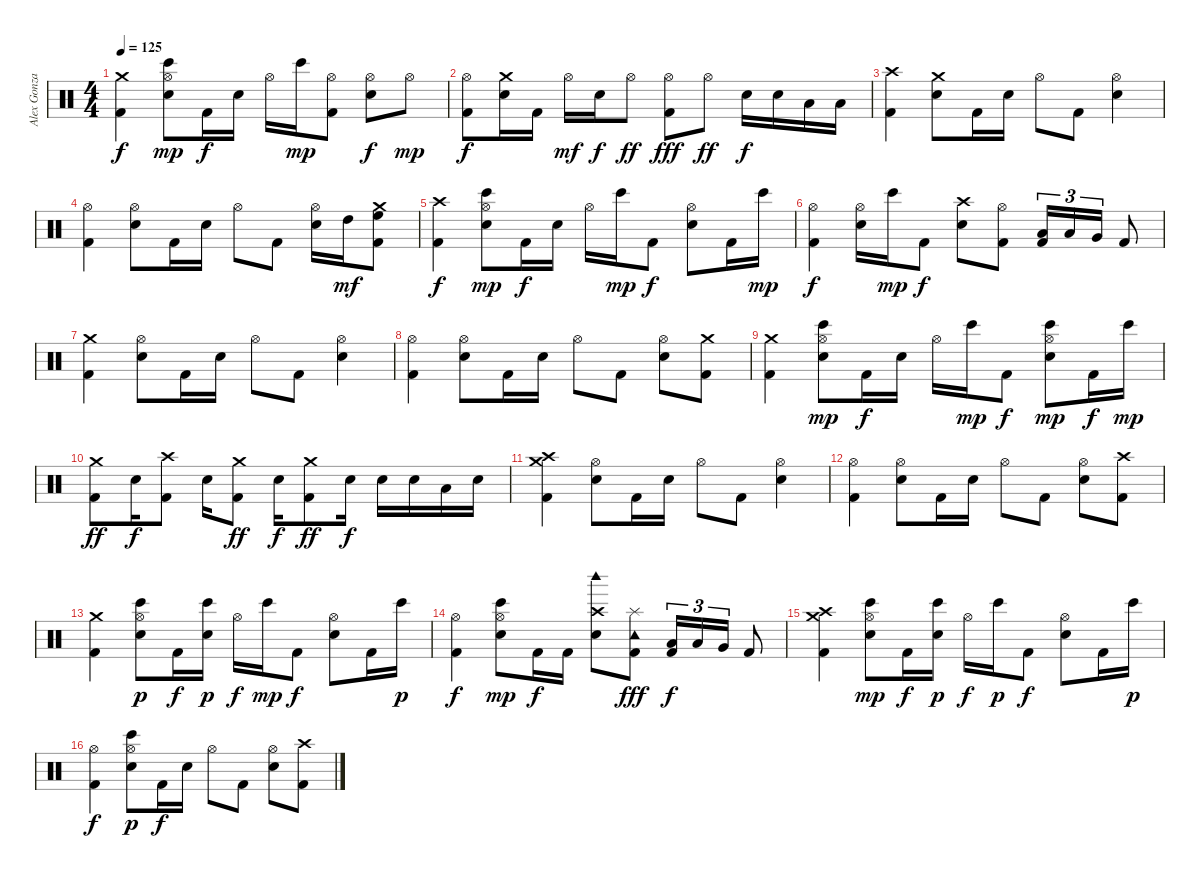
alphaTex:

\track ("Alex Gonzales" "Alex Gonza") {instrument percussion}
\staff {score}
\articulation defaults
\ts (4 4)
\tempo 125
\clef neutral
\ks c
("Crash medium (hit)" "Kick (hit) 2").4{dy f} ("Hi-Hat (open)" "Electric Snare (hit)" "Bongo High (hit)").8{dy mp} "Kick (hit) 2".16{dy f} "Electric Snare (hit)".16 "Hi-Hat (open)".16 "Bongo High (hit)".16{dy mp} ("Hi-Hat (open)" "Kick (hit) 2").8 ("Hi-Hat (open)" "Electric Snare (hit)").8{dy f} "Hi-Hat (open)".8{dy mp} |
("Hi-Hat (open)" "Kick (hit) 2").8{dy f} ("Crash medium (hit)" "Electric Snare (hit)").16 "Kick (hit) 2".16 "Hi-Hat (open)".16{dy mf} "Electric Snare (hit)".16{dy f} "Hi-Hat (open)".8{dy ff} ("Hi-Hat (open)" "Kick (hit) 2").8{dy fff} "Hi-Hat (open)".8{dy ff} "Electric Snare (hit)".16{dy f} "Electric Snare (hit)".16 "Low Tom (hit)".16 "Low Tom (hit)".16 |
("Crash high (hit)" "Kick (hit) 2").4 ("Crash medium (hit)" "Electric Snare (hit)").8 "Kick (hit) 2".16 "Electric Snare (hit)".16 "Hi-Hat (open)".8 "Kick (hit) 2".8 ("Hi-Hat (open)" "Electric Snare (hit)").4 |
("Hi-Hat (open)" "Kick (hit) 2").4 ("Hi-Hat (open)" "Electric Snare (hit)").8 "Kick (hit) 2".16 "Electric Snare (hit)".16 "Hi-Hat (open)".8 "Kick (hit) 2".8 ("Hi-Hat (open)" "Electric Snare (hit)").16 "High Tom (hit)".16{dy mf} ("High Floor Tom (hit)" "Crash medium (hit)" "Kick (hit) 2").8 |
("Crash high (hit)" "Kick (hit) 2").4{dy f} ("Hi-Hat (open)" "Electric Snare (hit)" "Bongo High (hit)").8{dy mp} "Kick (hit) 2".16{dy f} "Electric Snare (hit)".16 "Hi-Hat (open)".16 "Bongo High (hit)".16{dy mp} "Kick (hit) 2".8{dy f} ("Hi-Hat (open)" "Electric Snare (hit)").8 "Kick (hit) 2".16 "Bongo High (hit)".16{dy mp} |
("Hi-Hat (open)" "Kick (hit) 2").4{dy f} ("Hi-Hat (open)" "Electric Snare (hit)").16 "Bongo High (hit)".16{dy mp} "Kick (hit) 2".8{dy f} ("Crash high (hit)" "Electric Snare (hit)").8 ("Hi-Hat (open)" "Kick (hit) 2").8 ("Low Tom (hit)" "Kick (hit) 2").16{tu (3 2)} "Low Tom (hit)".16{tu (3 2)} "Very Low Tom (hit)".16{tu (3 2)} "Kick (hit) 2".8 |
("Crash medium (hit)" "Kick (hit) 2").4 ("Hi-Hat (open)" "Electric Snare (hit)").8 "Kick (hit) 2".16 "Electric Snare (hit)".16 "Hi-Hat (open)".8 "Kick (hit) 2".8 ("Hi-Hat (open)" "Electric Snare (hit)").4 |
("Hi-Hat (open)" "Kick (hit) 2").4 ("Hi-Hat (open)" "Electric Snare (hit)").8 "Kick (hit) 2".16 "Electric Snare (hit)".16 "Hi-Hat (open)".8 "Kick (hit) 2".8 ("Hi-Hat (open)" "Electric Snare (hit)").8 ("Crash medium (hit)" "Kick (hit) 2").8 |
("Crash medium (hit)" "Kick (hit) 2").4 ("Hi-Hat (open)" "Electric Snare (hit)" "Bongo High (hit)").8{dy mp} "Kick (hit) 2".16{dy f} "Electric Snare (hit)".16 "Hi-Hat (open)".16 "Bongo High (hit)".16{dy mp} "Kick (hit) 2".8{dy f} ("Hi-Hat (open)" "Electric Snare (hit)" "Bongo High (hit)").8{dy mp} "Kick (hit) 2".16{dy f} "Bongo High (hit)".16{dy mp} |
("Crash medium (hit)" "Kick (hit) 2").8{dy ff} "Electric Snare (hit)".16{dy f} ("Crash high (hit)" "Kick (hit) 2").8 "Electric Snare (hit)".16 ("Crash medium (hit)" "Kick (hit) 2").8{dy ff} "Electric Snare (hit)".16{dy f} ("Crash medium (hit)" "Kick (hit) 2").8{dy ff} "Electric Snare (hit)".16{dy f} "Electric Snare (hit)".16 "Electric Snare (hit)".16 "Low Tom (hit)".16 "Electric Snare (hit)".16 |
("Crash medium (hit)" "Crash high (hit)" "Kick (hit) 2").4 ("Hi-Hat (open)" "Electric Snare (hit)").8 "Kick (hit) 2".16 "Electric Snare (hit)".16 "Hi-Hat (open)".8 "Kick (hit) 2".8 ("Hi-Hat (open)" "Electric Snare (hit)").4 |
("Hi-Hat (open)" "Kick (hit) 2").4 ("Hi-Hat (open)" "Electric Snare (hit)").8 "Kick (hit) 2".16 "Electric Snare (hit)".16 "Hi-Hat (open)".8 "Kick (hit) 2".8 ("Hi-Hat (open)" "Electric Snare (hit)").8 ("Crash high (hit)" "Kick (hit) 2").8 |
("Crash medium (hit)" "Kick (hit) 2").4 ("Hi-Hat (open)" "Electric Snare (hit)" "Bongo High (hit)").8{dy p} "Kick (hit) 2".16{dy f} ("Electric Snare (hit)" "Bongo High (hit)").16{dy p} "Hi-Hat (open)".16{dy f} "Bongo High (hit)".16{dy mp} "Kick (hit) 2".8{dy f} ("Hi-Hat (open)" "Electric Snare (hit)").8 "Kick (hit) 2".16 "Bongo High (hit)".16{dy p} |
("Hi-Hat (open)" "Kick (hit) 2").4{dy f} ("Hi-Hat (open)" "Electric Snare (hit)" "Bongo High (hit)").8{dy mp} "Kick (hit) 2".16{dy f} "Kick (hit) 2".16 ("Crash high (hit)" "Electric Snare (hit)" "Woodblock high (hit)").8 ("Splash (hit)" "Tambourine (hit)" "Kick (hit) 2").8{dy fff} ("Low Tom (hit)" "Kick (hit) 2").16{tu (3 2) dy f} "Low Tom (hit)".16{tu (3 2)} "Very Low Tom (hit)".16{tu (3 2)} "Kick (hit) 2".8 |
("Crash medium (hit)" "Crash high (hit)" "Kick (hit) 2").4 ("Hi-Hat (open)" "Electric Snare (hit)" "Bongo High (hit)").8{dy mp} "Kick (hit) 2".16{dy f} ("Electric Snare (hit)" "Bongo High (hit)").16{dy p} "Hi-Hat (open)".16{dy f} "Bongo High (hit)".16{dy p} "Kick (hit) 2".8{dy f} ("Hi-Hat (open)" "Electric Snare (hit)").8 "Kick (hit) 2".16 "Bongo High (hit)".16{dy p} |
("Hi-Hat (open)" "Kick (hit) 2").4{dy f} ("Hi-Hat (open)" "Electric Snare (hit)" "Bongo High (hit)").8{dy p} "Kick (hit) 2".16{dy f} "Electric Snare (hit)".16 "Hi-Hat (open)".8 "Kick (hit) 2".8 ("Hi-Hat (open)" "Electric Snare (hit)").8 ("Crash high (hit)" "Kick (hit) 2").8
